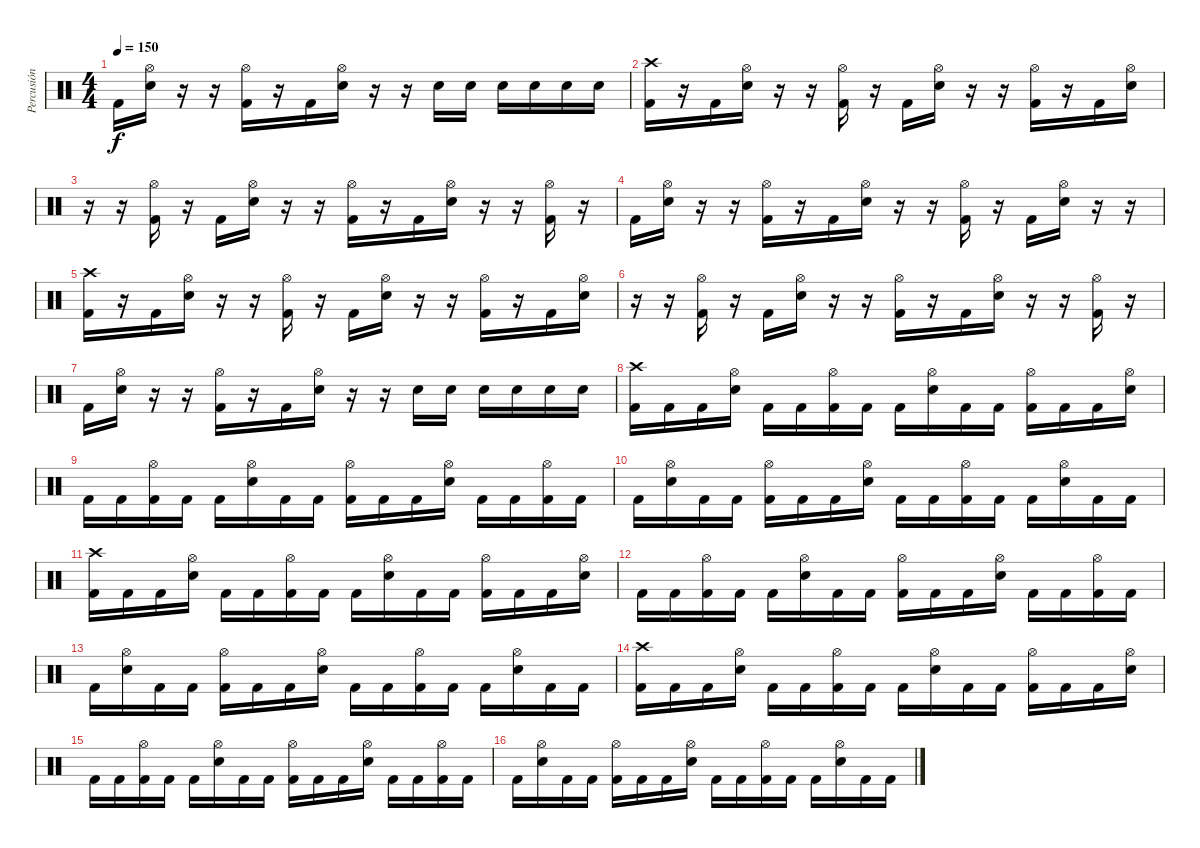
\track ("Percusión" "Percusión") {instrument percussion}
\staff {score}
\articulation defaults
\ts (4 4)
\tempo 150
\clef neutral
\ks c "Kick (hit) 2".16{dy f}
("Hi-Hat (open)" "Electric Snare (hit)").16 r.16 r.16 ("Hi-Hat (open)" "Kick (hit) 2").16 r.16 "Kick (hit) 2".16 ("Hi-Hat (open)" "Electric Snare (hit)").16 r.16 r.16 "Electric Snare (hit)".16 "Electric Snare (hit)".16 "Electric Snare (hit)".16 "Electric Snare (hit)".16 "Electric Snare (hit)".16 "Electric Snare (hit)".16 |
("Crash high (hit)" "Kick (hit) 2").16 r.16 "Kick (hit) 2".16 ("Hi-Hat (open)" "Electric Snare (hit)").16 r.16 r.16 ("Hi-Hat (open)" "Kick (hit) 2").16 r.16 "Kick (hit) 2".16 ("Hi-Hat (open)" "Electric Snare (hit)").16 r.16 r.16 ("Hi-Hat (open)" "Kick (hit) 2").16 r.16 "Kick (hit) 2".16 ("Hi-Hat (open)" "Electric Snare (hit)").16 |
r.16 r.16 ("Hi-Hat (open)" "Kick (hit) 2").16 r.16 "Kick (hit) 2".16 ("Hi-Hat (open)" "Electric Snare (hit)").16 r.16 r.16 ("Hi-Hat (open)" "Kick (hit) 2").16 r.16 "Kick (hit) 2".16 ("Hi-Hat (open)" "Electric Snare (hit)").16 r.16 r.16 ("Hi-Hat (open)" "Kick (hit) 2").16 r.16 |
"Kick (hit) 2".16 ("Hi-Hat (open)" "Electric Snare (hit)").16 r.16 r.16 ("Hi-Hat (open)" "Kick (hit) 2").16 r.16 "Kick (hit) 2".16 ("Hi-Hat (open)" "Electric Snare (hit)").16 r.16 r.16 ("Hi-Hat (open)" "Kick (hit) 2").16 r.16 "Kick (hit) 2".16 ("Hi-Hat (open)" "Electric Snare (hit)").16 r.16 r.16 |
("Crash high (hit)" "Kick (hit) 2").16 r.16 "Kick (hit) 2".16 ("Hi-Hat (open)" "Electric Snare (hit)").16 r.16 r.16 ("Hi-Hat (open)" "Kick (hit) 2").16 r.16 "Kick (hit) 2".16 ("Hi-Hat (open)" "Electric Snare (hit)").16 r.16 r.16 ("Hi-Hat (open)" "Kick (hit) 2").16 r.16 "Kick (hit) 2".16 ("Hi-Hat (open)" "Electric Snare (hit)").16 |
r.16 r.16 ("Hi-Hat (open)" "Kick (hit) 2").16 r.16 "Kick (hit) 2".16 ("Hi-Hat (open)" "Electric Snare (hit)").16 r.16 r.16 ("Hi-Hat (open)" "Kick (hit) 2").16 r.16 "Kick (hit) 2".16 ("Hi-Hat (open)" "Electric Snare (hit)").16 r.16 r.16 ("Hi-Hat (open)" "Kick (hit) 2").16 r.16 |
"Kick (hit) 2".16 ("Hi-Hat (open)" "Electric Snare (hit)").16 r.16 r.16 ("Hi-Hat (open)" "Kick (hit) 2").16 r.16 "Kick (hit) 2".16 ("Hi-Hat (open)" "Electric Snare (hit)").16 r.16 r.16 "Electric Snare (hit)".16 "Electric Snare (hit)".16 "Electric Snare (hit)".16 "Electric Snare (hit)".16 "Electric Snare (hit)".16 "Electric Snare (hit)".16 |
("Crash high (hit)" "Kick (hit) 2").16 "Kick (hit) 2".16 "Kick (hit) 2".16 ("Hi-Hat (open)" "Electric Snare (hit)").16 "Kick (hit) 2".16 "Kick (hit) 2".16 ("Hi-Hat (open)" "Kick (hit) 2").16 "Kick (hit) 2".16 "Kick (hit) 2".16 ("Hi-Hat (open)" "Electric Snare (hit)").16 "Kick (hit) 2".16 "Kick (hit) 2".16 ("Hi-Hat (open)" "Kick (hit) 2").16 "Kick (hit) 2".16 "Kick (hit) 2".16 ("Hi-Hat (open)" "Electric Snare (hit)").16 |
"Kick (hit) 2".16 "Kick (hit) 2".16 ("Hi-Hat (open)" "Kick (hit) 2").16 "Kick (hit) 2".16 "Kick (hit) 2".16 ("Hi-Hat (open)" "Electric Snare (hit)").16 "Kick (hit) 2".16 "Kick (hit) 2".16 ("Hi-Hat (open)" "Kick (hit) 2").16 "Kick (hit) 2".16 "Kick (hit) 2".16 ("Hi-Hat (open)" "Electric Snare (hit)").16 "Kick (hit) 2".16 "Kick (hit) 2".16 ("Hi-Hat (open)" "Kick (hit) 2").16 "Kick (hit) 2".16 |
"Kick (hit) 2".16 ("Hi-Hat (open)" "Electric Snare (hit)").16 "Kick (hit) 2".16 "Kick (hit) 2".16 ("Hi-Hat (open)" "Kick (hit) 2").16 "Kick (hit) 2".16 "Kick (hit) 2".16 ("Hi-Hat (open)" "Electric Snare (hit)").16 "Kick (hit) 2".16 "Kick (hit) 2".16 ("Hi-Hat (open)" "Kick (hit) 2").16 "Kick (hit) 2".16 "Kick (hit) 2".16 ("Hi-Hat (open)" "Electric Snare (hit)").16 "Kick (hit) 2".16 "Kick (hit) 2".16 |
("Crash high (hit)" "Kick (hit) 2").16 "Kick (hit) 2".16 "Kick (hit) 2".16 ("Hi-Hat (open)" "Electric Snare (hit)").16 "Kick (hit) 2".16 "Kick (hit) 2".16 ("Hi-Hat (open)" "Kick (hit) 2").16 "Kick (hit) 2".16 "Kick (hit) 2".16 ("Hi-Hat (open)" "Electric Snare (hit)").16 "Kick (hit) 2".16 "Kick (hit) 2".16 ("Hi-Hat (open)" "Kick (hit) 2").16 "Kick (hit) 2".16 "Kick (hit) 2".16 ("Hi-Hat (open)" "Electric Snare (hit)").16 |
"Kick (hit) 2".16 "Kick (hit) 2".16 ("Hi-Hat (open)" "Kick (hit) 2").16 "Kick (hit) 2".16 "Kick (hit) 2".16 ("Hi-Hat (open)" "Electric Snare (hit)").16 "Kick (hit) 2".16 "Kick (hit) 2".16 ("Hi-Hat (open)" "Kick (hit) 2").16 "Kick (hit) 2".16 "Kick (hit) 2".16 ("Hi-Hat (open)" "Electric Snare (hit)").16 "Kick (hit) 2".16 "Kick (hit) 2".16 ("Hi-Hat (open)" "Kick (hit) 2").16 "Kick (hit) 2".16 |
"Kick (hit) 2".16 ("Hi-Hat (open)" "Electric Snare (hit)").16 "Kick (hit) 2".16 "Kick (hit) 2".16 ("Hi-Hat (open)" "Kick (hit) 2").16 "Kick (hit) 2".16 "Kick (hit) 2".16 ("Hi-Hat (open)" "Electric Snare (hit)").16 "Kick (hit) 2".16 "Kick (hit) 2".16 ("Hi-Hat (open)" "Kick (hit) 2").16 "Kick (hit) 2".16 "Kick (hit) 2".16 ("Hi-Hat (open)" "Electric Snare (hit)").16 "Kick (hit) 2".16 "Kick (hit) 2".16 |
("Crash high (hit)" "Kick (hit) 2").16 "Kick (hit) 2".16 "Kick (hit) 2".16 ("Hi-Hat (open)" "Electric Snare (hit)").16 "Kick (hit) 2".16 "Kick (hit) 2".16 ("Hi-Hat (open)" "Kick (hit) 2").16 "Kick (hit) 2".16 "Kick (hit) 2".16 ("Hi-Hat (open)" "Electric Snare (hit)").16 "Kick (hit) 2".16 "Kick (hit) 2".16 ("Hi-Hat (open)" "Kick (hit) 2").16 "Kick (hit) 2".16 "Kick (hit) 2".16 ("Hi-Hat (open)" "Electric Snare (hit)").16 |
"Kick (hit) 2".16 "Kick (hit) 2".16 ("Hi-Hat (open)" "Kick (hit) 2").16 "Kick (hit) 2".16 "Kick (hit) 2".16 ("Hi-Hat (open)" "Electric Snare (hit)").16 "Kick (hit) 2".16 "Kick (hit) 2".16 ("Hi-Hat (open)" "Kick (hit) 2").16 "Kick (hit) 2".16 "Kick (hit) 2".16 ("Hi-Hat (open)" "Electric Snare (hit)").16 "Kick (hit) 2".16 "Kick (hit) 2".16 ("Hi-Hat (open)" "Kick (hit) 2").16 "Kick (hit) 2".16 |
"Kick (hit) 2".16 ("Hi-Hat (open)" "Electric Snare (hit)").16 "Kick (hit) 2".16 "Kick (hit) 2".16 ("Hi-Hat (open)" "Kick (hit) 2").16 "Kick (hit) 2".16 "Kick (hit) 2".16 ("Hi-Hat (open)" "Electric Snare (hit)").16 "Kick (hit) 2".16 "Kick (hit) 2".16 ("Hi-Hat (open)" "Kick (hit) 2").16 "Kick (hit) 2".16 "Kick (hit) 2".16 ("Hi-Hat (open)" "Electric Snare (hit)").16 "Kick (hit) 2".16 "Kick (hit) 2".16
